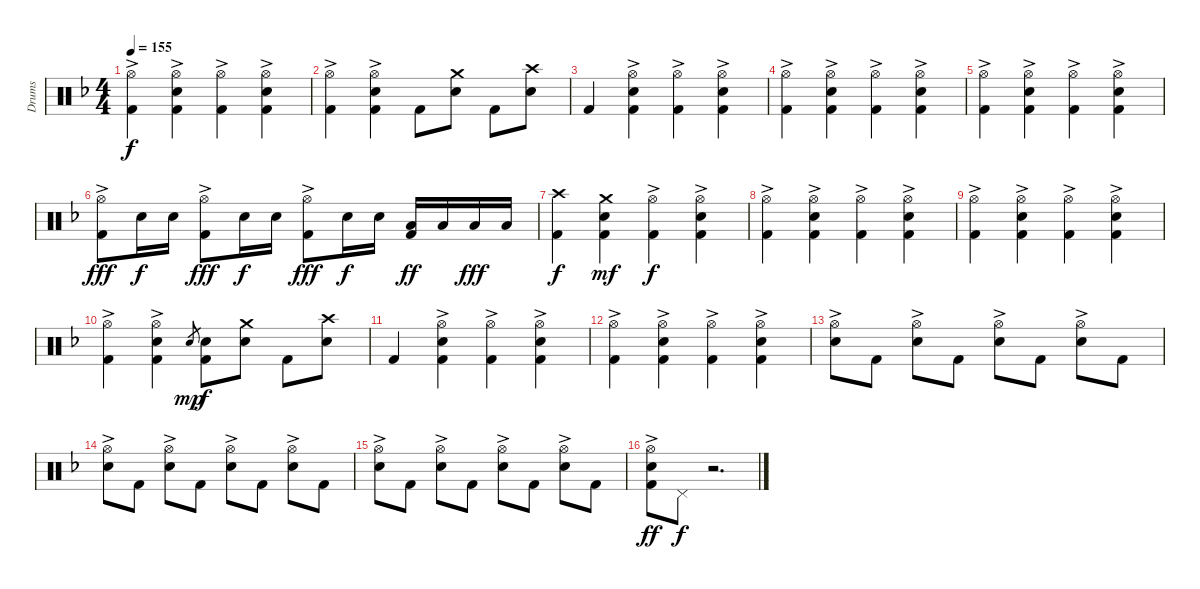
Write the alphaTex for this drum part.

\track ("Drums" "Drums") {instrument percussion}
\staff {score}
\articulation defaults
\ts (4 4)
\tempo 155
\clef neutral
\ks dminor
("Hi-Hat (open)"{ac} "Kick (hit) 2").4{dy f} ("Hi-Hat (open)"{ac} "Snare (hit) 2" "Kick (hit) 2").4 ("Hi-Hat (open)"{ac} "Kick (hit) 2").4 ("Hi-Hat (open)"{ac} "Snare (hit) 2" "Kick (hit) 2").4 |
("Hi-Hat (open)"{ac} "Kick (hit) 2").4 ("Hi-Hat (open)"{ac} "Snare (hit) 2" "Kick (hit) 2").4 "Kick (hit) 2".8 ("Crash medium (hit)" "Snare (hit) 2").8 "Kick (hit) 2".8 ("Crash high (hit)" "Snare (hit) 2").8 |
"Kick (hit) 2".4 ("Hi-Hat (open)"{ac} "Snare (hit) 2" "Kick (hit) 2").4 ("Hi-Hat (open)"{ac} "Kick (hit) 2").4 ("Hi-Hat (open)"{ac} "Snare (hit) 2" "Kick (hit) 2").4 |
("Hi-Hat (open)"{ac} "Kick (hit) 2").4 ("Hi-Hat (open)"{ac} "Snare (hit) 2" "Kick (hit) 2").4 ("Hi-Hat (open)"{ac} "Kick (hit) 2").4 ("Hi-Hat (open)"{ac} "Snare (hit) 2" "Kick (hit) 2").4 |
("Hi-Hat (open)"{ac} "Kick (hit) 2").4 ("Hi-Hat (open)"{ac} "Snare (hit) 2" "Kick (hit) 2").4 ("Hi-Hat (open)"{ac} "Kick (hit) 2").4 ("Hi-Hat (open)"{ac} "Snare (hit) 2" "Kick (hit) 2").4 |
("Hi-Hat (open)"{ac} "Kick (hit) 2").8{dy fff} "Snare (hit) 2".16{dy f} "Snare (hit) 2".16 ("Hi-Hat (open)"{ac} "Kick (hit) 2").8{dy fff} "Snare (hit) 2".16{dy f} "Snare (hit) 2".16 ("Hi-Hat (open)"{ac} "Kick (hit) 2").8{dy fff} "Snare (hit) 2".16{dy f} "Snare (hit) 2".16 ("Low Tom (hit)" "Kick (hit) 2").16{dy ff} "Low Tom (hit)".16 "Low Floor Tom (hit)".16{dy fff} "Low Floor Tom (hit)".16 |
("Crash high (hit)" "Kick (hit) 2").4{dy f} ("Crash medium (hit)" "Snare (hit) 2" "Kick (hit) 2").4{dy mf} ("Hi-Hat (open)"{ac} "Kick (hit) 2").4{dy f} ("Hi-Hat (open)"{ac} "Snare (hit) 2" "Kick (hit) 2").4 |
("Hi-Hat (open)"{ac} "Kick (hit) 2").4 ("Hi-Hat (open)"{ac} "Snare (hit) 2" "Kick (hit) 2").4 ("Hi-Hat (open)"{ac} "Kick (hit) 2").4 ("Hi-Hat (open)"{ac} "Snare (hit) 2" "Kick (hit) 2").4 |
("Hi-Hat (open)"{ac} "Kick (hit) 2").4 ("Hi-Hat (open)"{ac} "Snare (hit) 2" "Kick (hit) 2").4 ("Hi-Hat (open)"{ac} "Kick (hit) 2").4 ("Hi-Hat (open)"{ac} "Snare (hit) 2" "Kick (hit) 2").4 |
("Hi-Hat (open)"{ac} "Kick (hit) 2").4 ("Hi-Hat (open)"{ac} "Snare (hit) 2" "Kick (hit) 2").4 "Snare (hit) 2".8{gr dy mp} ("Snare (hit) 2" "Kick (hit) 2").8{dy f} ("Crash medium (hit)" "Snare (hit) 2").8 "Kick (hit) 2".8 ("Crash high (hit)" "Snare (hit) 2").8 |
"Kick (hit) 2".4 ("Hi-Hat (open)"{ac} "Snare (hit) 2" "Kick (hit) 2").4 ("Hi-Hat (open)"{ac} "Kick (hit) 2").4 ("Hi-Hat (open)"{ac} "Snare (hit) 2" "Kick (hit) 2").4 |
("Hi-Hat (open)"{ac} "Kick (hit) 2").4 ("Hi-Hat (open)"{ac} "Snare (hit) 2" "Kick (hit) 2").4 ("Hi-Hat (open)"{ac} "Kick (hit) 2").4 ("Hi-Hat (open)"{ac} "Snare (hit) 2" "Kick (hit) 2").4 |
("Hi-Hat (open)"{ac} "Snare (hit) 2").8 "Kick (hit) 2".8 ("Hi-Hat (open)"{ac} "Snare (hit) 2").8 "Kick (hit) 2".8 ("Hi-Hat (open)"{ac} "Snare (hit) 2").8 "Kick (hit) 2".8 ("Hi-Hat (open)"{ac} "Snare (hit) 2").8 "Kick (hit) 2".8 |
("Hi-Hat (open)"{ac} "Snare (hit) 2").8 "Kick (hit) 2".8 ("Hi-Hat (open)"{ac} "Snare (hit) 2").8 "Kick (hit) 2".8 ("Hi-Hat (open)"{ac} "Snare (hit) 2").8 "Kick (hit) 2".8 ("Hi-Hat (open)"{ac} "Snare (hit) 2").8 "Kick (hit) 2".8 |
("Hi-Hat (open)"{ac} "Snare (hit) 2").8 "Kick (hit) 2".8 ("Hi-Hat (open)"{ac} "Snare (hit) 2").8 "Kick (hit) 2".8 ("Hi-Hat (open)"{ac} "Snare (hit) 2").8 "Kick (hit) 2".8 ("Hi-Hat (open)"{ac} "Snare (hit) 2").8 "Kick (hit) 2".8 |
("Hi-Hat (open)"{ac} "Snare (hit) 2" "Kick (hit) 2").8{dy ff} "Pedal Hi-Hat (hit)".8{dy f} r.2{d}
